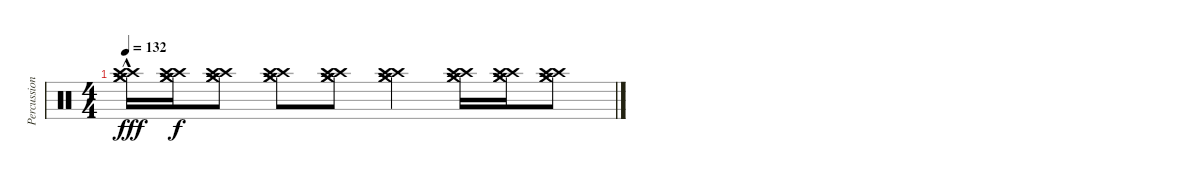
\track ("Percussion" "Percussion") {instrument percussion}
\staff {score}
\articulation defaults
\ts (4 4)
\tempo 132
\clef neutral
\ks c
("Crash high (hit)"{hac} "Crash high (hit)"{hac} "Crash medium (hit)"{hac} "Crash medium (hit)"{hac}).16{dy fff} ("Crash high (hit)" "Crash high (hit)" "Crash medium (hit)" "Crash medium (hit)").16{dy f} ("Crash high (hit)" "Crash high (hit)" "Crash medium (hit)" "Crash medium (hit)").8 ("Crash high (hit)" "Crash high (hit)" "Crash medium (hit)" "Crash medium (hit)").8 ("Crash high (hit)" "Crash high (hit)" "Crash medium (hit)" "Crash medium (hit)").8 ("Crash high (hit)" "Crash high (hit)" "Crash medium (hit)" "Crash medium (hit)").4 ("Crash high (hit)" "Crash high (hit)" "Crash medium (hit)" "Crash medium (hit)").16 ("Crash high (hit)" "Crash high (hit)" "Crash medium (hit)" "Crash medium (hit)").16 ("Crash high (hit)" "Crash high (hit)" "Crash medium (hit)" "Crash medium (hit)").8
